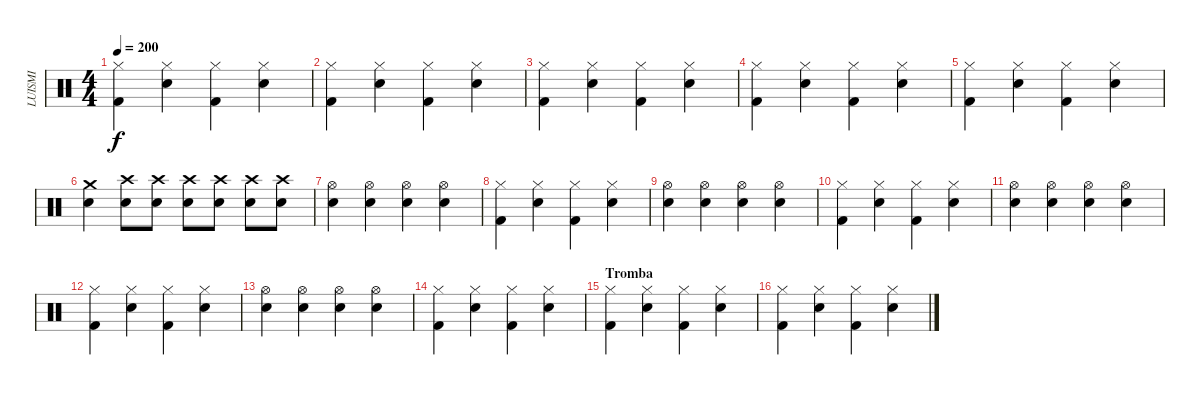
\track ("LUISMI" "LUISMI") {instrument percussion}
\staff {score}
\articulation defaults
\ts (4 4)
\tempo 200
\clef neutral
\ks c
("Hi-Hat (closed)" "Kick (hit) 2").4{dy f} ("Hi-Hat (closed)" "Snare (hit) 2").4 ("Hi-Hat (closed)" "Kick (hit) 2").4 ("Hi-Hat (closed)" "Snare (hit) 2").4 |
("Hi-Hat (closed)" "Kick (hit) 2").4 ("Hi-Hat (closed)" "Snare (hit) 2").4 ("Hi-Hat (closed)" "Kick (hit) 2").4 ("Hi-Hat (closed)" "Snare (hit) 2").4 |
("Hi-Hat (closed)" "Kick (hit) 2").4 ("Hi-Hat (closed)" "Snare (hit) 2").4 ("Hi-Hat (closed)" "Kick (hit) 2").4 ("Hi-Hat (closed)" "Snare (hit) 2").4 |
("Hi-Hat (closed)" "Kick (hit) 2").4 ("Hi-Hat (closed)" "Snare (hit) 2").4 ("Hi-Hat (closed)" "Kick (hit) 2").4 ("Hi-Hat (closed)" "Snare (hit) 2").4 |
("Hi-Hat (closed)" "Kick (hit) 2").4 ("Hi-Hat (closed)" "Snare (hit) 2").4 ("Hi-Hat (closed)" "Kick (hit) 2").4 ("Hi-Hat (closed)" "Snare (hit) 2").4 |
("Electric Snare (hit)" "Crash medium (hit)").4 ("Snare (hit) 2" "Crash high (hit)").8 ("Snare (hit) 2" "Crash high (hit)").8 ("Snare (hit) 2" "Crash high (hit)").8 ("Snare (hit) 2" "Crash high (hit)").8 ("Snare (hit) 2" "Crash high (hit)").8 ("Snare (hit) 2" "Crash high (hit)").8 |
("Snare (hit) 2" "Hi-Hat (open)").4 ("Snare (hit) 2" "Hi-Hat (open)").4 ("Snare (hit) 2" "Hi-Hat (open)").4 ("Snare (hit) 2" "Hi-Hat (open)").4 |
("Hi-Hat (closed)" "Kick (hit) 2").4 ("Hi-Hat (closed)" "Snare (hit) 2").4 ("Hi-Hat (closed)" "Kick (hit) 2").4 ("Hi-Hat (closed)" "Snare (hit) 2").4 |
("Snare (hit) 2" "Hi-Hat (open)").4 ("Snare (hit) 2" "Hi-Hat (open)").4 ("Snare (hit) 2" "Hi-Hat (open)").4 ("Snare (hit) 2" "Hi-Hat (open)").4 |
("Hi-Hat (closed)" "Kick (hit) 2").4 ("Hi-Hat (closed)" "Snare (hit) 2").4 ("Hi-Hat (closed)" "Kick (hit) 2").4 ("Hi-Hat (closed)" "Snare (hit) 2").4 |
("Snare (hit) 2" "Hi-Hat (open)").4 ("Snare (hit) 2" "Hi-Hat (open)").4 ("Snare (hit) 2" "Hi-Hat (open)").4 ("Snare (hit) 2" "Hi-Hat (open)").4 |
("Hi-Hat (closed)" "Kick (hit) 2").4 ("Hi-Hat (closed)" "Snare (hit) 2").4 ("Hi-Hat (closed)" "Kick (hit) 2").4 ("Hi-Hat (closed)" "Snare (hit) 2").4 |
("Snare (hit) 2" "Hi-Hat (open)").4 ("Snare (hit) 2" "Hi-Hat (open)").4 ("Snare (hit) 2" "Hi-Hat (open)").4 ("Snare (hit) 2" "Hi-Hat (open)").4 |
("Hi-Hat (closed)" "Kick (hit) 2").4 ("Hi-Hat (closed)" "Snare (hit) 2").4 ("Hi-Hat (closed)" "Kick (hit) 2").4 ("Hi-Hat (closed)" "Snare (hit) 2").4 |
\section ("" "Tromba")
("Hi-Hat (closed)" "Kick (hit) 2").4 ("Hi-Hat (closed)" "Snare (hit) 2").4 ("Hi-Hat (closed)" "Kick (hit) 2").4 ("Hi-Hat (closed)" "Snare (hit) 2").4 |
("Hi-Hat (closed)" "Kick (hit) 2").4 ("Hi-Hat (closed)" "Snare (hit) 2").4 ("Hi-Hat (closed)" "Kick (hit) 2").4 ("Hi-Hat (closed)" "Snare (hit) 2").4
